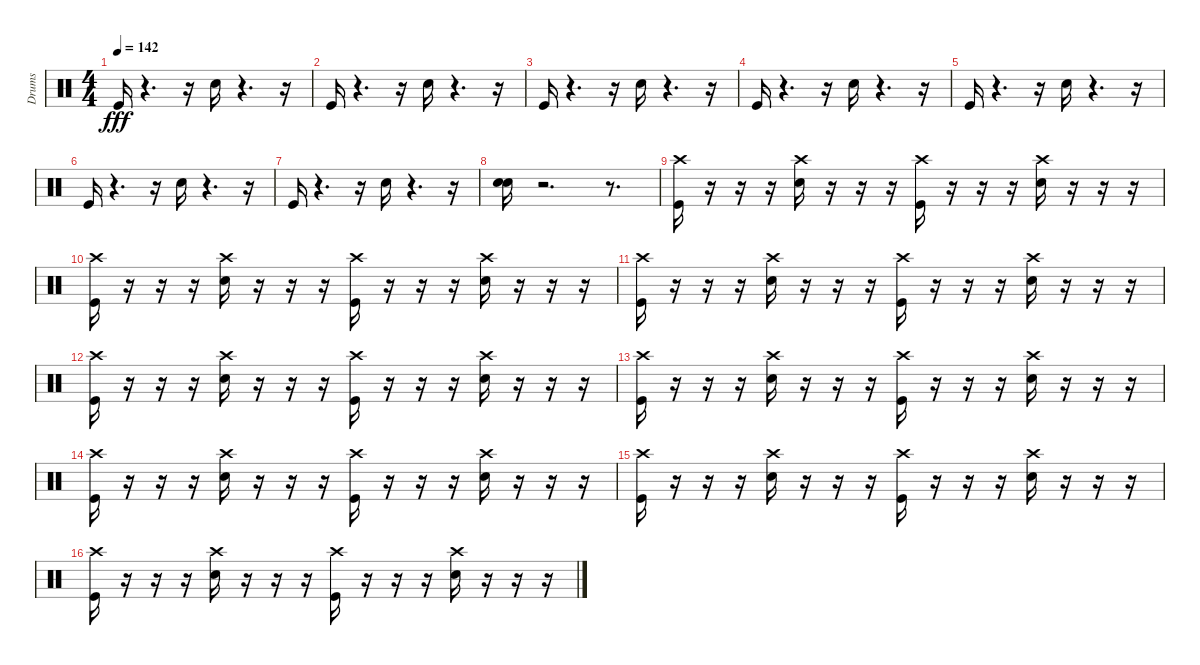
\track ("Drums" "Drums") {instrument percussion}
\staff {score}
\articulation defaults
\ts (4 4)
\tempo 142
\clef neutral
\ks c "Kick (hit)".16{dy fff}
r.4{d} r.16 "Snare (hit) 2".16 r.4{d} r.16 |
"Kick (hit)".16 r.4{d} r.16 "Snare (hit) 2".16 r.4{d} r.16 |
"Kick (hit)".16 r.4{d} r.16 "Snare (hit) 2".16 r.4{d} r.16 |
"Kick (hit)".16 r.4{d} r.16 "Snare (hit) 2".16 r.4{d} r.16 |
"Kick (hit)".16 r.4{d} r.16 "Snare (hit) 2".16 r.4{d} r.16 |
"Kick (hit)".16 r.4{d} r.16 "Snare (hit) 2".16 r.4{d} r.16 |
"Kick (hit)".16 r.4{d} r.16 "Snare (hit) 2".16 r.4{d} r.16 |
("Snare (hit) 2" "Electric Snare (hit)").16 r.2{d} r.8{d} |
("Kick (hit)" "Crash high (hit)").16 r.16 r.16 r.16 ("Snare (hit) 2" "Crash high (hit)").16 r.16 r.16 r.16 ("Kick (hit)" "Crash high (hit)").16 r.16 r.16 r.16 ("Snare (hit) 2" "Crash high (hit)").16 r.16 r.16 r.16 |
("Kick (hit)" "Crash high (hit)").16 r.16 r.16 r.16 ("Snare (hit) 2" "Crash high (hit)").16 r.16 r.16 r.16 ("Kick (hit)" "Crash high (hit)").16 r.16 r.16 r.16 ("Snare (hit) 2" "Crash high (hit)").16 r.16 r.16 r.16 |
("Kick (hit)" "Crash high (hit)").16 r.16 r.16 r.16 ("Snare (hit) 2" "Crash high (hit)").16 r.16 r.16 r.16 ("Kick (hit)" "Crash high (hit)").16 r.16 r.16 r.16 ("Snare (hit) 2" "Crash high (hit)").16 r.16 r.16 r.16 |
("Kick (hit)" "Crash high (hit)").16 r.16 r.16 r.16 ("Snare (hit) 2" "Crash high (hit)").16 r.16 r.16 r.16 ("Kick (hit)" "Crash high (hit)").16 r.16 r.16 r.16 ("Snare (hit) 2" "Crash high (hit)").16 r.16 r.16 r.16 |
("Kick (hit)" "Crash high (hit)").16 r.16 r.16 r.16 ("Snare (hit) 2" "Crash high (hit)").16 r.16 r.16 r.16 ("Kick (hit)" "Crash high (hit)").16 r.16 r.16 r.16 ("Snare (hit) 2" "Crash high (hit)").16 r.16 r.16 r.16 |
("Kick (hit)" "Crash high (hit)").16 r.16 r.16 r.16 ("Snare (hit) 2" "Crash high (hit)").16 r.16 r.16 r.16 ("Kick (hit)" "Crash high (hit)").16 r.16 r.16 r.16 ("Snare (hit) 2" "Crash high (hit)").16 r.16 r.16 r.16 |
("Kick (hit)" "Crash high (hit)").16 r.16 r.16 r.16 ("Snare (hit) 2" "Crash high (hit)").16 r.16 r.16 r.16 ("Kick (hit)" "Crash high (hit)").16 r.16 r.16 r.16 ("Snare (hit) 2" "Crash high (hit)").16 r.16 r.16 r.16 |
("Kick (hit)" "Crash high (hit)").16 r.16 r.16 r.16 ("Snare (hit) 2" "Crash high (hit)").16 r.16 r.16 r.16 ("Kick (hit)" "Crash high (hit)").16 r.16 r.16 r.16 ("Snare (hit) 2" "Crash high (hit)").16 r.16 r.16 r.16
